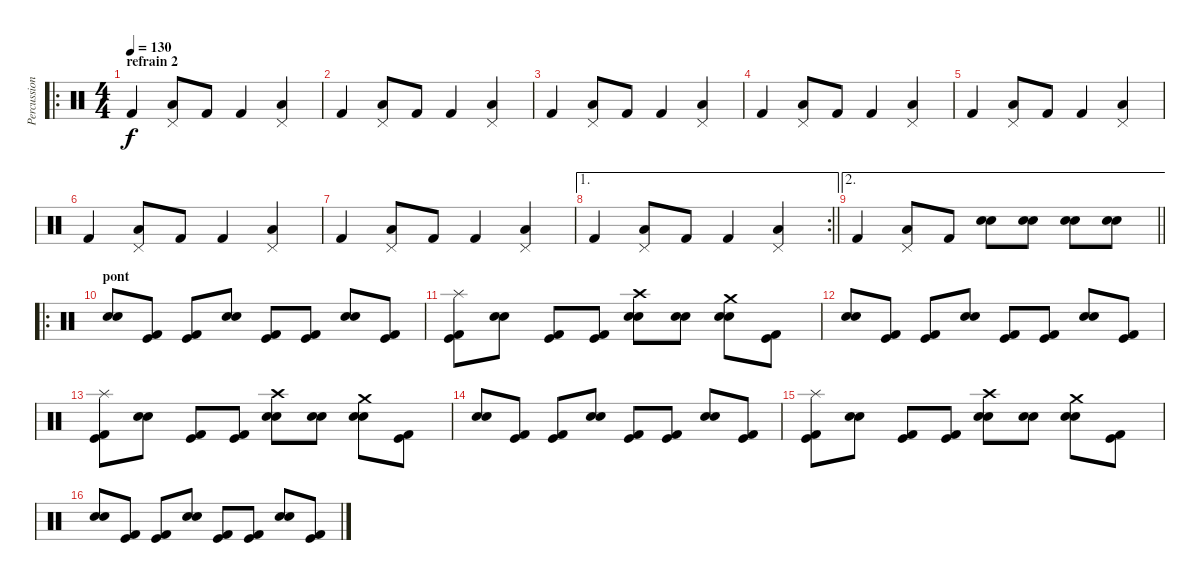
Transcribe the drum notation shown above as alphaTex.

\track ("Percussions" "Percussion") {instrument percussion}
\staff {score}
\articulation defaults
\ro
\ts (4 4)
\section ("" "refrain 2")
\tempo 130
\clef neutral
\ks c "Kick (hit) 2".4{dy f}
("Low Floor Tom (hit)" "Pedal Hi-Hat (hit)").8 "Kick (hit) 2".8 "Kick (hit) 2".4 ("Low Floor Tom (hit)" "Pedal Hi-Hat (hit)").4 |
"Kick (hit) 2".4 ("Low Floor Tom (hit)" "Pedal Hi-Hat (hit)").8 "Kick (hit) 2".8 "Kick (hit) 2".4 ("Low Floor Tom (hit)" "Pedal Hi-Hat (hit)").4 |
"Kick (hit) 2".4 ("Low Floor Tom (hit)" "Pedal Hi-Hat (hit)").8 "Kick (hit) 2".8 "Kick (hit) 2".4 ("Low Floor Tom (hit)" "Pedal Hi-Hat (hit)").4 |
"Kick (hit) 2".4 ("Low Floor Tom (hit)" "Pedal Hi-Hat (hit)").8 "Kick (hit) 2".8 "Kick (hit) 2".4 ("Low Floor Tom (hit)" "Pedal Hi-Hat (hit)").4 |
"Kick (hit) 2".4 ("Low Floor Tom (hit)" "Pedal Hi-Hat (hit)").8 "Kick (hit) 2".8 "Kick (hit) 2".4 ("Low Floor Tom (hit)" "Pedal Hi-Hat (hit)").4 |
"Kick (hit) 2".4 ("Low Floor Tom (hit)" "Pedal Hi-Hat (hit)").8 "Kick (hit) 2".8 "Kick (hit) 2".4 ("Low Floor Tom (hit)" "Pedal Hi-Hat (hit)").4 |
"Kick (hit) 2".4 ("Low Floor Tom (hit)" "Pedal Hi-Hat (hit)").8 "Kick (hit) 2".8 "Kick (hit) 2".4 ("Low Floor Tom (hit)" "Pedal Hi-Hat (hit)").4 |
\ae 1
\rc 2
\barLineRight lightlight "Kick (hit) 2".4
("Low Floor Tom (hit)" "Pedal Hi-Hat (hit)").8 "Kick (hit) 2".8 "Kick (hit) 2".4 ("Low Floor Tom (hit)" "Pedal Hi-Hat (hit)").4 |
\ae 2
\barLineRight lightlight "Kick (hit) 2".4
("Low Floor Tom (hit)" "Pedal Hi-Hat (hit)").8 "Kick (hit) 2".8 ("Electric Snare (hit)" "Snare (hit) 2").8 ("Electric Snare (hit)" "Snare (hit) 2").8 ("Electric Snare (hit)" "Snare (hit) 2").8 ("Electric Snare (hit)" "Snare (hit) 2").8 |
\ro
\section ("" "pont")
("Snare (hit) 2" "Electric Snare (hit)").8 ("Kick (hit) 2" "Kick (hit)").8 ("Kick (hit)" "Kick (hit) 2").8 ("Snare (hit) 2" "Electric Snare (hit)").8 ("Kick (hit) 2" "Kick (hit)").8 ("Kick (hit)" "Kick (hit) 2").8 ("Snare (hit) 2" "Electric Snare (hit)").8 ("Kick (hit) 2" "Kick (hit)").8 |
("Splash (hit)" "Kick (hit)" "Kick (hit) 2").8 ("Snare (hit) 2" "Electric Snare (hit)").8 ("Kick (hit) 2" "Kick (hit)").8 ("Kick (hit)" "Kick (hit) 2").8 ("Crash high (hit)" "Snare (hit) 2" "Electric Snare (hit)").8 ("Snare (hit) 2" "Electric Snare (hit)").8 ("Crash medium (hit)" "Snare (hit) 2" "Electric Snare (hit)").8 ("Kick (hit)" "Kick (hit) 2").8 |
("Snare (hit) 2" "Electric Snare (hit)").8 ("Kick (hit) 2" "Kick (hit)").8 ("Kick (hit)" "Kick (hit) 2").8 ("Snare (hit) 2" "Electric Snare (hit)").8 ("Kick (hit) 2" "Kick (hit)").8 ("Kick (hit)" "Kick (hit) 2").8 ("Snare (hit) 2" "Electric Snare (hit)").8 ("Kick (hit) 2" "Kick (hit)").8 |
("Splash (hit)" "Kick (hit)" "Kick (hit) 2").8 ("Snare (hit) 2" "Electric Snare (hit)").8 ("Kick (hit) 2" "Kick (hit)").8 ("Kick (hit)" "Kick (hit) 2").8 ("Crash high (hit)" "Snare (hit) 2" "Electric Snare (hit)").8 ("Snare (hit) 2" "Electric Snare (hit)").8 ("Crash medium (hit)" "Snare (hit) 2" "Electric Snare (hit)").8 ("Kick (hit)" "Kick (hit) 2").8 |
("Snare (hit) 2" "Electric Snare (hit)").8 ("Kick (hit) 2" "Kick (hit)").8 ("Kick (hit)" "Kick (hit) 2").8 ("Snare (hit) 2" "Electric Snare (hit)").8 ("Kick (hit) 2" "Kick (hit)").8 ("Kick (hit)" "Kick (hit) 2").8 ("Snare (hit) 2" "Electric Snare (hit)").8 ("Kick (hit) 2" "Kick (hit)").8 |
("Splash (hit)" "Kick (hit)" "Kick (hit) 2").8 ("Snare (hit) 2" "Electric Snare (hit)").8 ("Kick (hit) 2" "Kick (hit)").8 ("Kick (hit)" "Kick (hit) 2").8 ("Crash high (hit)" "Snare (hit) 2" "Electric Snare (hit)").8 ("Snare (hit) 2" "Electric Snare (hit)").8 ("Crash medium (hit)" "Snare (hit) 2" "Electric Snare (hit)").8 ("Kick (hit)" "Kick (hit) 2").8 |
("Snare (hit) 2" "Electric Snare (hit)").8 ("Kick (hit) 2" "Kick (hit)").8 ("Kick (hit)" "Kick (hit) 2").8 ("Snare (hit) 2" "Electric Snare (hit)").8 ("Kick (hit) 2" "Kick (hit)").8 ("Kick (hit)" "Kick (hit) 2").8 ("Snare (hit) 2" "Electric Snare (hit)").8 ("Kick (hit) 2" "Kick (hit)").8
